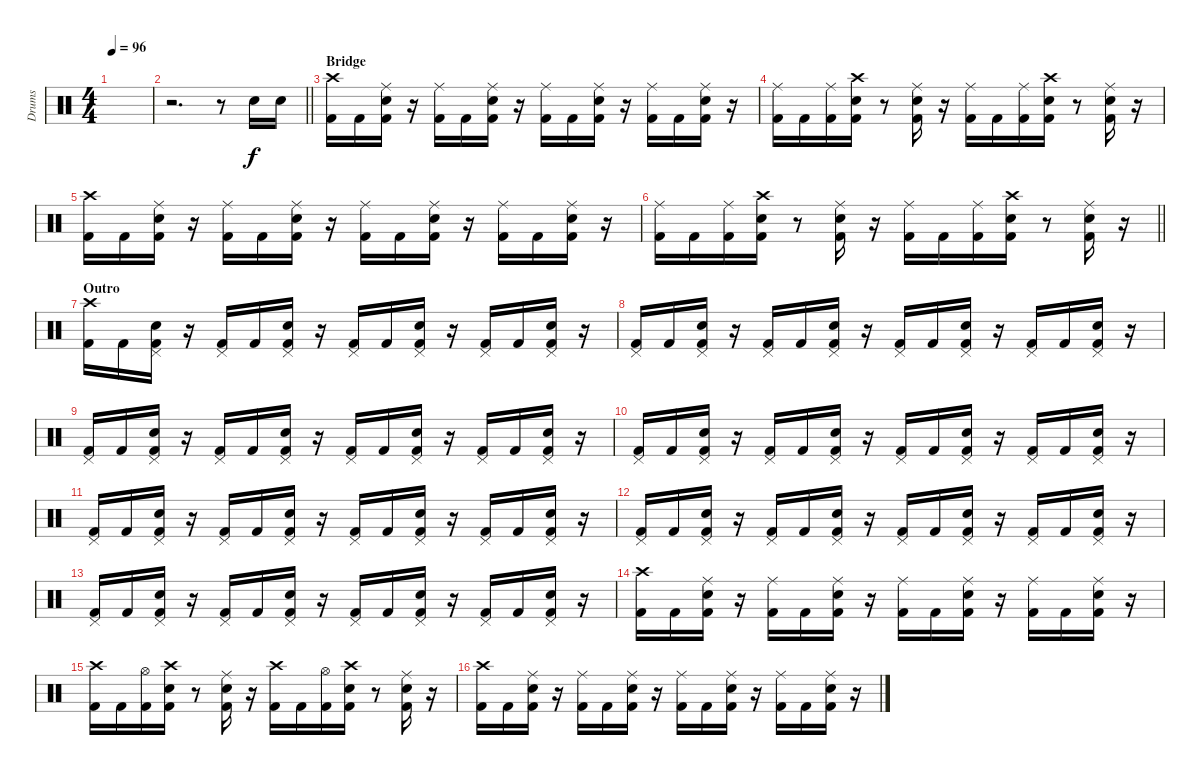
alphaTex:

\track ("Drums" "Drums") {instrument percussion}
\staff {score}
\articulation defaults
\ts (4 4)
\tempo 96
\clef neutral
\ks c
|
\barLineRight lightlight
r.2{d} r.8 "Snare (hit) 2".16 "Snare (hit) 2".16 |
\section ("" "Bridge")
("Crash high (hit)" "Kick (hit) 2").16 "Kick (hit) 2".16 ("Ride (middle)" "Snare (hit) 2" "Kick (hit) 2").16 r.16 ("Ride (middle)" "Kick (hit) 2").16 "Kick (hit) 2".16 ("Ride (middle)" "Snare (hit) 2" "Kick (hit) 2").16 r.16 ("Ride (middle)" "Kick (hit) 2").16 "Kick (hit) 2".16 ("Ride (middle)" "Snare (hit) 2" "Kick (hit) 2").16 r.16 ("Ride (middle)" "Kick (hit) 2").16 "Kick (hit) 2".16 ("Ride (middle)" "Snare (hit) 2" "Kick (hit) 2").16 r.16 |
("Ride (middle)" "Kick (hit) 2").16 "Kick (hit) 2".16 ("Ride (middle)" "Kick (hit) 2").16 ("Crash high (hit)" "Snare (hit) 2" "Kick (hit) 2").16 r.8 ("Ride (middle)" "Snare (hit) 2" "Kick (hit) 2").16 r.16 ("Ride (middle)" "Kick (hit) 2").16 "Kick (hit) 2".16 ("Ride (middle)" "Kick (hit) 2").16 ("Crash high (hit)" "Snare (hit) 2" "Kick (hit) 2").16 r.8 ("Ride (middle)" "Snare (hit) 2" "Kick (hit) 2").16 r.16 |
("Crash high (hit)" "Kick (hit) 2").16 "Kick (hit) 2".16 ("Ride (middle)" "Snare (hit) 2" "Kick (hit) 2").16 r.16 ("Ride (middle)" "Kick (hit) 2").16 "Kick (hit) 2".16 ("Ride (middle)" "Snare (hit) 2" "Kick (hit) 2").16 r.16 ("Ride (middle)" "Kick (hit) 2").16 "Kick (hit) 2".16 ("Ride (middle)" "Snare (hit) 2" "Kick (hit) 2").16 r.16 ("Ride (middle)" "Kick (hit) 2").16 "Kick (hit) 2".16 ("Ride (middle)" "Snare (hit) 2" "Kick (hit) 2").16 r.16 |
\barLineRight lightlight
("Ride (middle)" "Kick (hit) 2").16 "Kick (hit) 2".16 ("Ride (middle)" "Kick (hit) 2").16 ("Crash high (hit)" "Snare (hit) 2" "Kick (hit) 2").16 r.8 ("Ride (middle)" "Snare (hit) 2" "Kick (hit) 2").16 r.16 ("Ride (middle)" "Kick (hit) 2").16 "Kick (hit) 2".16 ("Ride (middle)" "Kick (hit) 2").16 ("Crash high (hit)" "Snare (hit) 2" "Kick (hit) 2").16 r.8 ("Ride (middle)" "Snare (hit) 2" "Kick (hit) 2").16 r.16 |
\section ("" "Outro")
("Crash high (hit)" "Kick (hit) 2").16 "Kick (hit) 2".16 ("Pedal Hi-Hat (hit)" "Snare (hit) 2" "Kick (hit) 2").16 r.16 ("Pedal Hi-Hat (hit)" "Kick (hit) 2").16 "Kick (hit) 2".16 ("Pedal Hi-Hat (hit)" "Snare (hit) 2" "Kick (hit) 2").16 r.16 ("Pedal Hi-Hat (hit)" "Kick (hit) 2").16 "Kick (hit) 2".16 ("Pedal Hi-Hat (hit)" "Snare (hit) 2" "Kick (hit) 2").16 r.16 ("Pedal Hi-Hat (hit)" "Kick (hit) 2").16 "Kick (hit) 2".16 ("Pedal Hi-Hat (hit)" "Snare (hit) 2" "Kick (hit) 2").16 r.16 |
("Pedal Hi-Hat (hit)" "Kick (hit) 2").16 "Kick (hit) 2".16 ("Pedal Hi-Hat (hit)" "Snare (hit) 2" "Kick (hit) 2").16 r.16 ("Pedal Hi-Hat (hit)" "Kick (hit) 2").16 "Kick (hit) 2".16 ("Pedal Hi-Hat (hit)" "Snare (hit) 2" "Kick (hit) 2").16 r.16 ("Pedal Hi-Hat (hit)" "Kick (hit) 2").16 "Kick (hit) 2".16 ("Pedal Hi-Hat (hit)" "Snare (hit) 2" "Kick (hit) 2").16 r.16 ("Pedal Hi-Hat (hit)" "Kick (hit) 2").16 "Kick (hit) 2".16 ("Pedal Hi-Hat (hit)" "Snare (hit) 2" "Kick (hit) 2").16 r.16 |
("Pedal Hi-Hat (hit)" "Kick (hit) 2").16 "Kick (hit) 2".16 ("Pedal Hi-Hat (hit)" "Snare (hit) 2" "Kick (hit) 2").16 r.16 ("Pedal Hi-Hat (hit)" "Kick (hit) 2").16 "Kick (hit) 2".16 ("Pedal Hi-Hat (hit)" "Snare (hit) 2" "Kick (hit) 2").16 r.16 ("Pedal Hi-Hat (hit)" "Kick (hit) 2").16 "Kick (hit) 2".16 ("Pedal Hi-Hat (hit)" "Snare (hit) 2" "Kick (hit) 2").16 r.16 ("Pedal Hi-Hat (hit)" "Kick (hit) 2").16 "Kick (hit) 2".16 ("Pedal Hi-Hat (hit)" "Snare (hit) 2" "Kick (hit) 2").16 r.16 |
("Pedal Hi-Hat (hit)" "Kick (hit) 2").16 "Kick (hit) 2".16 ("Pedal Hi-Hat (hit)" "Snare (hit) 2" "Kick (hit) 2").16 r.16 ("Pedal Hi-Hat (hit)" "Kick (hit) 2").16 "Kick (hit) 2".16 ("Pedal Hi-Hat (hit)" "Snare (hit) 2" "Kick (hit) 2").16 r.16 ("Pedal Hi-Hat (hit)" "Kick (hit) 2").16 "Kick (hit) 2".16 ("Pedal Hi-Hat (hit)" "Snare (hit) 2" "Kick (hit) 2").16 r.16 ("Pedal Hi-Hat (hit)" "Kick (hit) 2").16 "Kick (hit) 2".16 ("Pedal Hi-Hat (hit)" "Snare (hit) 2" "Kick (hit) 2").16 r.16 |
("Pedal Hi-Hat (hit)" "Kick (hit) 2").16 "Kick (hit) 2".16 ("Pedal Hi-Hat (hit)" "Snare (hit) 2" "Kick (hit) 2").16 r.16 ("Pedal Hi-Hat (hit)" "Kick (hit) 2").16 "Kick (hit) 2".16 ("Pedal Hi-Hat (hit)" "Snare (hit) 2" "Kick (hit) 2").16 r.16 ("Pedal Hi-Hat (hit)" "Kick (hit) 2").16 "Kick (hit) 2".16 ("Pedal Hi-Hat (hit)" "Snare (hit) 2" "Kick (hit) 2").16 r.16 ("Pedal Hi-Hat (hit)" "Kick (hit) 2").16 "Kick (hit) 2".16 ("Pedal Hi-Hat (hit)" "Snare (hit) 2" "Kick (hit) 2").16 r.16 |
("Pedal Hi-Hat (hit)" "Kick (hit) 2").16 "Kick (hit) 2".16 ("Pedal Hi-Hat (hit)" "Snare (hit) 2" "Kick (hit) 2").16 r.16 ("Pedal Hi-Hat (hit)" "Kick (hit) 2").16 "Kick (hit) 2".16 ("Pedal Hi-Hat (hit)" "Snare (hit) 2" "Kick (hit) 2").16 r.16 ("Pedal Hi-Hat (hit)" "Kick (hit) 2").16 "Kick (hit) 2".16 ("Pedal Hi-Hat (hit)" "Snare (hit) 2" "Kick (hit) 2").16 r.16 ("Pedal Hi-Hat (hit)" "Kick (hit) 2").16 "Kick (hit) 2".16 ("Pedal Hi-Hat (hit)" "Snare (hit) 2" "Kick (hit) 2").16 r.16 |
("Pedal Hi-Hat (hit)" "Kick (hit) 2").16 "Kick (hit) 2".16 ("Pedal Hi-Hat (hit)" "Snare (hit) 2" "Kick (hit) 2").16 r.16 ("Pedal Hi-Hat (hit)" "Kick (hit) 2").16 "Kick (hit) 2".16 ("Pedal Hi-Hat (hit)" "Snare (hit) 2" "Kick (hit) 2").16 r.16 ("Pedal Hi-Hat (hit)" "Kick (hit) 2").16 "Kick (hit) 2".16 ("Pedal Hi-Hat (hit)" "Snare (hit) 2" "Kick (hit) 2").16 r.16 ("Pedal Hi-Hat (hit)" "Kick (hit) 2").16 "Kick (hit) 2".16 ("Pedal Hi-Hat (hit)" "Snare (hit) 2" "Kick (hit) 2").16 r.16 |
("Crash high (hit)" "Kick (hit) 2").16 "Kick (hit) 2".16 ("Ride (middle)" "Snare (hit) 2" "Kick (hit) 2").16 r.16 ("Ride (middle)" "Kick (hit) 2").16 "Kick (hit) 2".16 ("Ride (middle)" "Snare (hit) 2" "Kick (hit) 2").16 r.16 ("Ride (middle)" "Kick (hit) 2").16 "Kick (hit) 2".16 ("Ride (middle)" "Snare (hit) 2" "Kick (hit) 2").16 r.16 ("Ride (middle)" "Kick (hit) 2").16 "Kick (hit) 2".16 ("Ride (middle)" "Snare (hit) 2" "Kick (hit) 2").16 r.16 |
("Crash high (hit)" "Kick (hit) 2").16 "Kick (hit) 2".16 ("Hi-Hat (open)" "Kick (hit) 2").16 ("Crash high (hit)" "Snare (hit) 2" "Kick (hit) 2").16 r.8 ("Ride (middle)" "Snare (hit) 2" "Kick (hit) 2").16 r.16 ("Crash high (hit)" "Kick (hit) 2").16 "Kick (hit) 2".16 ("Hi-Hat (open)" "Kick (hit) 2").16 ("Crash high (hit)" "Snare (hit) 2" "Kick (hit) 2").16 r.8 ("Ride (middle)" "Snare (hit) 2" "Kick (hit) 2").16 r.16 |
("Crash high (hit)" "Kick (hit) 2").16 "Kick (hit) 2".16 ("Ride (middle)" "Snare (hit) 2" "Kick (hit) 2").16 r.16 ("Ride (middle)" "Kick (hit) 2").16 "Kick (hit) 2".16 ("Ride (middle)" "Snare (hit) 2" "Kick (hit) 2").16 r.16 ("Ride (middle)" "Kick (hit) 2").16 "Kick (hit) 2".16 ("Ride (middle)" "Snare (hit) 2" "Kick (hit) 2").16 r.16 ("Ride (middle)" "Kick (hit) 2").16 "Kick (hit) 2".16 ("Ride (middle)" "Snare (hit) 2" "Kick (hit) 2").16 r.16
